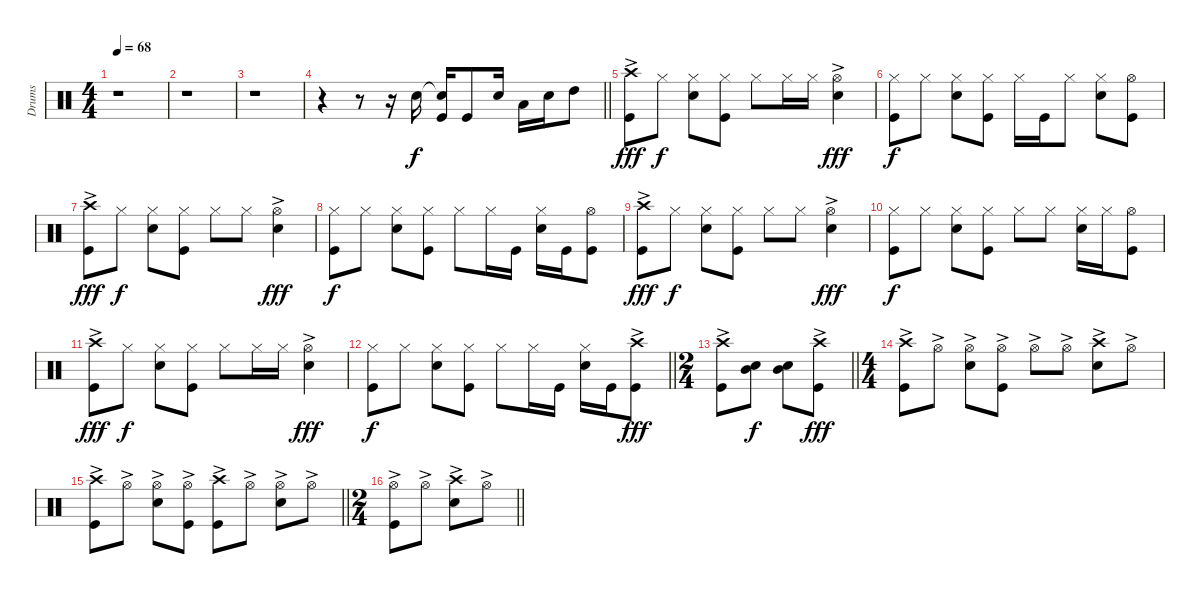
\track ("Drums" "Drums") {instrument percussion}
\staff {score}
\articulation defaults
\ts (4 4)
\tempo 68
\clef neutral
\ks c
r.1{dy f} |
r.1 |
r.1 |
\barLineRight lightlight
r.4 r.8 r.16 "Snare (hit) 2".16 ("Snare (hit) 2"{t} "Kick (hit)").16 "Kick (hit)".8 "Snare (hit) 2".16 "Low Tom (hit)".16 "Snare (hit) 2".16 "High Tom (hit)".8 |
("Crash high (hit)"{ac} "Kick (hit)").8{dy fff} "Hi-Hat (closed)".8{dy f} ("Hi-Hat (closed)" "Snare (hit) 2").8 ("Hi-Hat (closed)" "Kick (hit)").8 "Hi-Hat (closed)".8 "Hi-Hat (closed)".16 "Hi-Hat (closed)".16 ("Hi-Hat (open)"{ac} "Snare (hit) 2").4{dy fff} |
("Hi-Hat (closed)" "Kick (hit)").8{dy f} "Hi-Hat (closed)".8 ("Hi-Hat (closed)" "Snare (hit) 2").8 ("Hi-Hat (closed)" "Kick (hit)").8 "Hi-Hat (closed)".16 "Kick (hit)".16 "Hi-Hat (closed)".8 ("Hi-Hat (closed)" "Snare (hit) 2").8 ("Hi-Hat (open)" "Kick (hit)").8 |
("Crash high (hit)"{ac} "Kick (hit)").8{dy fff} "Hi-Hat (closed)".8{dy f} ("Hi-Hat (closed)" "Snare (hit) 2").8 ("Hi-Hat (closed)" "Kick (hit)").8 "Hi-Hat (closed)".8 "Hi-Hat (closed)".8 ("Hi-Hat (open)"{ac} "Snare (hit) 2").4{dy fff} |
("Hi-Hat (closed)" "Kick (hit)").8{dy f} "Hi-Hat (closed)".8 ("Hi-Hat (closed)" "Snare (hit) 2").8 ("Hi-Hat (closed)" "Kick (hit)").8 "Hi-Hat (closed)".8 "Hi-Hat (closed)".16 "Kick (hit)".16 ("Hi-Hat (closed)" "Snare (hit) 2").16 "Kick (hit)".16 ("Hi-Hat (open)" "Kick (hit)").8 |
("Crash high (hit)"{ac} "Kick (hit)").8{dy fff} "Hi-Hat (closed)".8{dy f} ("Hi-Hat (closed)" "Snare (hit) 2").8 ("Hi-Hat (closed)" "Kick (hit)").8 "Hi-Hat (closed)".8 "Hi-Hat (closed)".8 ("Hi-Hat (open)"{ac} "Snare (hit) 2").4{dy fff} |
("Hi-Hat (closed)" "Kick (hit)").8{dy f} "Hi-Hat (closed)".8 ("Hi-Hat (closed)" "Snare (hit) 2").8 ("Hi-Hat (closed)" "Kick (hit)").8 "Hi-Hat (closed)".8 "Hi-Hat (closed)".8 ("Hi-Hat (closed)" "Snare (hit) 2").16 "Hi-Hat (closed)".16 ("Hi-Hat (open)" "Kick (hit)").8 |
("Crash high (hit)"{ac} "Kick (hit)").8{dy fff} "Hi-Hat (closed)".8{dy f} ("Hi-Hat (closed)" "Snare (hit) 2").8 ("Hi-Hat (closed)" "Kick (hit)").8 "Hi-Hat (closed)".8 "Hi-Hat (closed)".16 "Hi-Hat (closed)".16 ("Hi-Hat (open)"{ac} "Snare (hit) 2").4{dy fff} |
\barLineRight lightlight
("Hi-Hat (closed)" "Kick (hit)").8{dy f} "Hi-Hat (closed)".8 ("Hi-Hat (closed)" "Snare (hit) 2").8 ("Hi-Hat (closed)" "Kick (hit)").8 "Hi-Hat (closed)".8 "Hi-Hat (closed)".16 "Kick (hit)".16 ("Hi-Hat (closed)" "Snare (hit) 2").16 "Kick (hit)".16 ("Crash high (hit)"{ac} "Kick (hit)").8{dy fff} |
\ts (2 4)
\barLineRight lightlight
("Crash high (hit)"{ac} "Kick (hit)").8 ("Mid Tom (hit)" "Snare (hit) 2").8{dy f} ("Mid Tom (hit)" "Snare (hit) 2").8 ("Crash high (hit)"{ac} "Kick (hit)").8{dy fff} |
\ts (4 4)
("Crash high (hit)"{ac} "Kick (hit)").8 "Hi-Hat (open)"{ac}.8 ("Hi-Hat (open)"{ac} "Snare (hit) 2").8 ("Hi-Hat (open)"{ac} "Kick (hit)").8 "Hi-Hat (open)"{ac}.8 "Hi-Hat (open)"{ac}.8 ("Crash high (hit)"{ac} "Snare (hit) 2").8 "Hi-Hat (open)"{ac}.8 |
\barLineRight lightlight
("Crash high (hit)"{ac} "Kick (hit)").8 "Hi-Hat (open)"{ac}.8 ("Hi-Hat (open)"{ac} "Snare (hit) 2").8 ("Hi-Hat (open)"{ac} "Kick (hit)").8 ("Crash high (hit)"{ac} "Kick (hit)").8 "Hi-Hat (open)"{ac}.8 ("Hi-Hat (open)"{ac} "Snare (hit) 2").8 "Hi-Hat (open)"{ac}.8 |
\ts (2 4)
\barLineRight lightlight
("Hi-Hat (open)"{ac} "Kick (hit)").8 "Hi-Hat (open)"{ac}.8 ("Crash high (hit)"{ac} "Snare (hit) 2").8 "Hi-Hat (open)"{ac}.8
